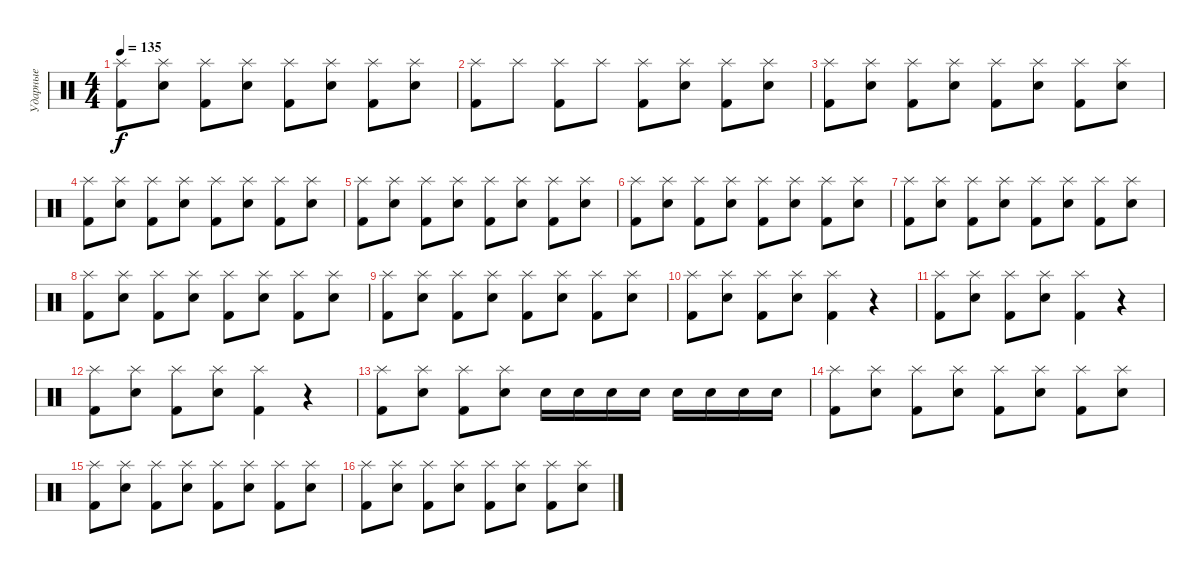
\track ("Ударные" "Ударные") {instrument percussion}
\staff {score}
\articulation defaults
\ts (4 4)
\tempo 135
\clef neutral
\ks c
("Splash (hit)" "Kick (hit) 2").8{dy f} ("Splash (hit)" "Snare (hit) 2").8 ("Splash (hit)" "Kick (hit) 2").8 ("Splash (hit)" "Snare (hit) 2").8 ("Splash (hit)" "Kick (hit) 2").8 ("Splash (hit)" "Snare (hit) 2").8 ("Splash (hit)" "Kick (hit) 2").8 ("Splash (hit)" "Snare (hit) 2").8 |
("Splash (hit)" "Kick (hit) 2").8 "Splash (hit)".8 ("Splash (hit)" "Kick (hit) 2").8 "Splash (hit)".8 ("Splash (hit)" "Kick (hit) 2").8 ("Splash (hit)" "Snare (hit) 2").8 ("Splash (hit)" "Kick (hit) 2").8 ("Splash (hit)" "Snare (hit) 2").8 |
("Splash (hit)" "Kick (hit) 2").8 ("Splash (hit)" "Snare (hit) 2").8 ("Splash (hit)" "Kick (hit) 2").8 ("Splash (hit)" "Snare (hit) 2").8 ("Splash (hit)" "Kick (hit) 2").8 ("Splash (hit)" "Snare (hit) 2").8 ("Splash (hit)" "Kick (hit) 2").8 ("Splash (hit)" "Snare (hit) 2").8 |
("Splash (hit)" "Kick (hit) 2").8 ("Splash (hit)" "Snare (hit) 2").8 ("Splash (hit)" "Kick (hit) 2").8 ("Splash (hit)" "Snare (hit) 2").8 ("Splash (hit)" "Kick (hit) 2").8 ("Splash (hit)" "Snare (hit) 2").8 ("Splash (hit)" "Kick (hit) 2").8 ("Splash (hit)" "Snare (hit) 2").8 |
("Splash (hit)" "Kick (hit) 2").8 ("Splash (hit)" "Snare (hit) 2").8 ("Splash (hit)" "Kick (hit) 2").8 ("Splash (hit)" "Snare (hit) 2").8 ("Splash (hit)" "Kick (hit) 2").8 ("Splash (hit)" "Snare (hit) 2").8 ("Splash (hit)" "Kick (hit) 2").8 ("Splash (hit)" "Snare (hit) 2").8 |
("Splash (hit)" "Kick (hit) 2").8 ("Splash (hit)" "Snare (hit) 2").8 ("Splash (hit)" "Kick (hit) 2").8 ("Splash (hit)" "Snare (hit) 2").8 ("Splash (hit)" "Kick (hit) 2").8 ("Splash (hit)" "Snare (hit) 2").8 ("Splash (hit)" "Kick (hit) 2").8 ("Splash (hit)" "Snare (hit) 2").8 |
("Splash (hit)" "Kick (hit) 2").8 ("Splash (hit)" "Snare (hit) 2").8 ("Splash (hit)" "Kick (hit) 2").8 ("Splash (hit)" "Snare (hit) 2").8 ("Splash (hit)" "Kick (hit) 2").8 ("Splash (hit)" "Snare (hit) 2").8 ("Splash (hit)" "Kick (hit) 2").8 ("Splash (hit)" "Snare (hit) 2").8 |
("Splash (hit)" "Kick (hit) 2").8 ("Splash (hit)" "Snare (hit) 2").8 ("Splash (hit)" "Kick (hit) 2").8 ("Splash (hit)" "Snare (hit) 2").8 ("Splash (hit)" "Kick (hit) 2").8 ("Splash (hit)" "Snare (hit) 2").8 ("Splash (hit)" "Kick (hit) 2").8 ("Splash (hit)" "Snare (hit) 2").8 |
("Splash (hit)" "Kick (hit) 2").8 ("Splash (hit)" "Snare (hit) 2").8 ("Splash (hit)" "Kick (hit) 2").8 ("Splash (hit)" "Snare (hit) 2").8 ("Splash (hit)" "Kick (hit) 2").8 ("Splash (hit)" "Snare (hit) 2").8 ("Splash (hit)" "Kick (hit) 2").8 ("Splash (hit)" "Snare (hit) 2").8 |
("Splash (hit)" "Kick (hit) 2").8 ("Splash (hit)" "Snare (hit) 2").8 ("Splash (hit)" "Kick (hit) 2").8 ("Splash (hit)" "Snare (hit) 2").8 ("Splash (hit)" "Kick (hit) 2").4 r.4 |
("Splash (hit)" "Kick (hit) 2").8 ("Splash (hit)" "Snare (hit) 2").8 ("Splash (hit)" "Kick (hit) 2").8 ("Splash (hit)" "Snare (hit) 2").8 ("Splash (hit)" "Kick (hit) 2").4 r.4 |
("Splash (hit)" "Kick (hit) 2").8 ("Splash (hit)" "Snare (hit) 2").8 ("Splash (hit)" "Kick (hit) 2").8 ("Splash (hit)" "Snare (hit) 2").8 ("Splash (hit)" "Kick (hit) 2").4 r.4 |
("Splash (hit)" "Kick (hit) 2").8 ("Splash (hit)" "Snare (hit) 2").8 ("Splash (hit)" "Kick (hit) 2").8 ("Splash (hit)" "Snare (hit) 2").8 "Snare (hit) 2".16 "Snare (hit) 2".16 "Snare (hit) 2".16 "Snare (hit) 2".16 "Snare (hit) 2".16 "Snare (hit) 2".16 "Snare (hit) 2".16 "Snare (hit) 2".16 |
("Splash (hit)" "Kick (hit) 2").8 ("Splash (hit)" "Snare (hit) 2").8 ("Splash (hit)" "Kick (hit) 2").8 ("Splash (hit)" "Snare (hit) 2").8 ("Splash (hit)" "Kick (hit) 2").8 ("Splash (hit)" "Snare (hit) 2").8 ("Splash (hit)" "Kick (hit) 2").8 ("Splash (hit)" "Snare (hit) 2").8 |
("Splash (hit)" "Kick (hit) 2").8 ("Splash (hit)" "Snare (hit) 2").8 ("Splash (hit)" "Kick (hit) 2").8 ("Splash (hit)" "Snare (hit) 2").8 ("Splash (hit)" "Kick (hit) 2").8 ("Splash (hit)" "Snare (hit) 2").8 ("Splash (hit)" "Kick (hit) 2").8 ("Splash (hit)" "Snare (hit) 2").8 |
("Splash (hit)" "Kick (hit) 2").8 ("Splash (hit)" "Snare (hit) 2").8 ("Splash (hit)" "Kick (hit) 2").8 ("Splash (hit)" "Snare (hit) 2").8 ("Splash (hit)" "Kick (hit) 2").8 ("Splash (hit)" "Snare (hit) 2").8 ("Splash (hit)" "Kick (hit) 2").8 ("Splash (hit)" "Snare (hit) 2").8
